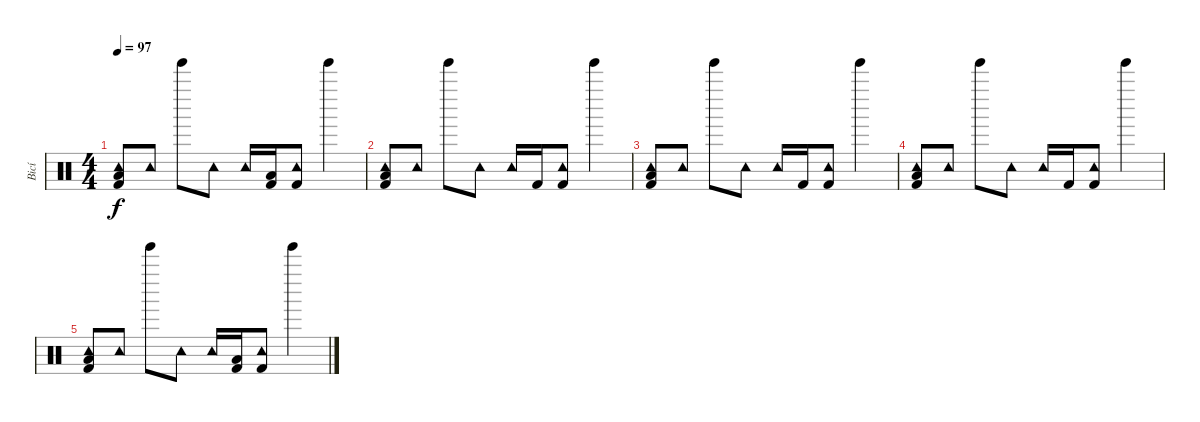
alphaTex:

\track ("Bicí" "Bicí") {instrument percussion}
\staff {score}
\articulation defaults
\ts (4 4)
\tempo 97
\clef neutral
\ks c
("Tambourine (hit)" "Low Floor Tom (hit)" "Kick (hit) 2").8{dy f} "Tambourine (hit)".8 "Tinkle Bell (hit)".8 "Tambourine (hit)".8 "Tambourine (hit)".16 ("Low Floor Tom (hit)" "Kick (hit) 2").16 ("Tambourine (hit)" "Kick (hit) 2").8 "Tinkle Bell (hit)".4 |
("Tambourine (hit)" "Low Floor Tom (hit)" "Kick (hit) 2").8{volume 2} "Tambourine (hit)".8 "Tinkle Bell (hit)".8 "Tambourine (hit)".8 "Tambourine (hit)".16 "Kick (hit) 2".16 ("Tambourine (hit)" "Kick (hit) 2").8 "Tinkle Bell (hit)".4 |
("Tambourine (hit)" "Low Floor Tom (hit)" "Kick (hit) 2").8 "Tambourine (hit)".8 "Tinkle Bell (hit)".8 "Tambourine (hit)".8 "Tambourine (hit)".16 "Kick (hit) 2".16 ("Tambourine (hit)" "Kick (hit) 2").8 "Tinkle Bell (hit)".4 |
("Tambourine (hit)" "Low Floor Tom (hit)" "Kick (hit) 2").8 "Tambourine (hit)".8 "Tinkle Bell (hit)".8 "Tambourine (hit)".8 "Tambourine (hit)".16 "Kick (hit) 2".16 ("Tambourine (hit)" "Kick (hit) 2").8 "Tinkle Bell (hit)".4 |
("Tambourine (hit)" "Low Floor Tom (hit)" "Kick (hit) 2").8 "Tambourine (hit)".8 "Tinkle Bell (hit)".8 "Tambourine (hit)".8 "Tambourine (hit)".16 ("Low Floor Tom (hit)" "Kick (hit) 2").16 ("Tambourine (hit)" "Kick (hit) 2").8 "Tinkle Bell (hit)".4
